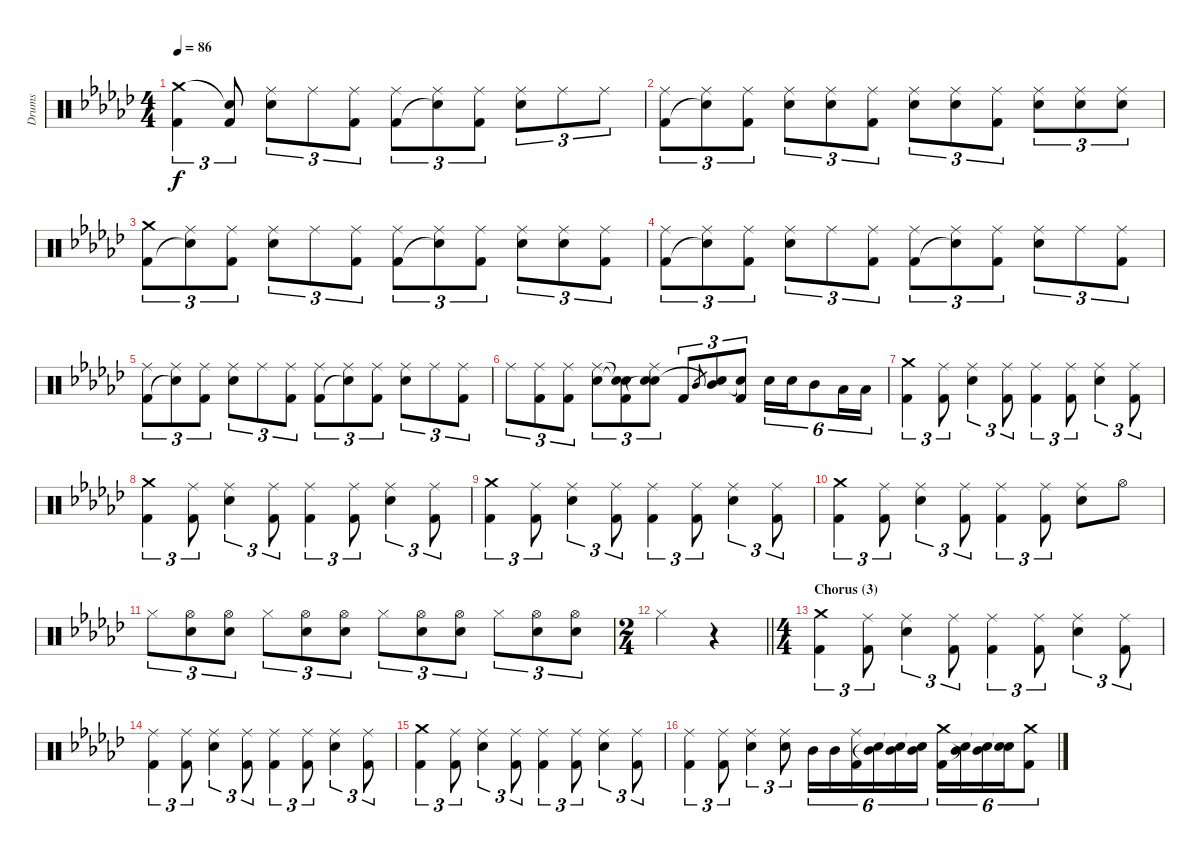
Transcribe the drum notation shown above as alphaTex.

\track ("Drums" "Drums") {instrument percussion}
\staff {score}
\articulation defaults
\ts (4 4)
\tempo 86
\clef neutral
\ks ebminor
("Crash medium (hit)" "Kick (hit) 2").4{tu (3 2) dy f} ("Snare (hit)"{t} "Kick (hit) 2").8{tu (3 2)} ("Ride (middle)" "Electric Snare (hit)").8{tu (3 2)} "Ride (middle)".8{tu (3 2)} ("Ride (middle)" "Kick (hit) 2").8{tu (3 2)} ("Ride (middle)" "Kick (hit) 2").8{tu (3 2)} ("Ride (middle)" "Snare (hit)"{t}).8{tu (3 2)} ("Ride (middle)" "Kick (hit) 2").8{tu (3 2)} ("Ride (middle)" "Electric Snare (hit)").8{tu (3 2)} "Ride (middle)".8{tu (3 2)} "Ride (middle)".8{tu (3 2)} |
("Ride (middle)" "Kick (hit) 2").8{tu (3 2)} ("Ride (middle)" "Snare (hit)"{t}).8{tu (3 2)} ("Ride (middle)" "Kick (hit) 2").8{tu (3 2)} ("Ride (middle)" "Electric Snare (hit)").8{tu (3 2)} ("Ride (middle)" "Electric Snare (hit)").8{tu (3 2)} ("Ride (middle)" "Kick (hit) 2").8{tu (3 2)} ("Ride (middle)" "Electric Snare (hit)").8{tu (3 2)} ("Ride (middle)" "Electric Snare (hit)").8{tu (3 2)} ("Ride (middle)" "Kick (hit) 2").8{tu (3 2)} ("Ride (middle)" "Electric Snare (hit)").8{tu (3 2)} ("Ride (middle)" "Electric Snare (hit)").8{tu (3 2)} ("Ride (middle)" "Electric Snare (hit)").8{tu (3 2)} |
("Crash medium (hit)" "Kick (hit) 2").8{tu (3 2)} ("Ride (middle)" "Snare (hit)"{t}).8{tu (3 2)} ("Ride (middle)" "Kick (hit) 2").8{tu (3 2)} ("Ride (middle)" "Electric Snare (hit)").8{tu (3 2)} "Ride (middle)".8{tu (3 2)} ("Ride (middle)" "Kick (hit) 2").8{tu (3 2)} ("Ride (middle)" "Kick (hit) 2").8{tu (3 2)} ("Ride (middle)" "Snare (hit)"{t}).8{tu (3 2)} ("Ride (middle)" "Kick (hit) 2").8{tu (3 2)} ("Ride (middle)" "Electric Snare (hit)").8{tu (3 2)} ("Ride (middle)" "Electric Snare (hit)").8{tu (3 2)} ("Ride (middle)" "Kick (hit) 2").8{tu (3 2)} |
("Ride (middle)" "Kick (hit) 2").8{tu (3 2)} ("Ride (middle)" "Snare (hit)"{t}).8{tu (3 2)} ("Ride (middle)" "Kick (hit) 2").8{tu (3 2)} ("Ride (middle)" "Electric Snare (hit)").8{tu (3 2)} "Ride (middle)".8{tu (3 2)} ("Ride (middle)" "Kick (hit) 2").8{tu (3 2)} ("Ride (middle)" "Kick (hit) 2").8{tu (3 2)} ("Ride (middle)" "Snare (hit)"{t}).8{tu (3 2)} ("Ride (middle)" "Kick (hit) 2").8{tu (3 2)} ("Ride (middle)" "Electric Snare (hit)").8{tu (3 2)} "Ride (middle)".8{tu (3 2)} ("Ride (middle)" "Kick (hit) 2").8{tu (3 2)} |
("Ride (middle)" "Kick (hit) 2").8{tu (3 2)} ("Ride (middle)" "Snare (hit)"{t}).8{tu (3 2)} ("Ride (middle)" "Kick (hit) 2").8{tu (3 2)} ("Ride (middle)" "Electric Snare (hit)").8{tu (3 2)} "Ride (middle)".8{tu (3 2)} ("Ride (middle)" "Kick (hit) 2").8{tu (3 2)} ("Ride (middle)" "Kick (hit) 2").8{tu (3 2)} ("Ride (middle)" "Snare (hit)"{t}).8{tu (3 2)} ("Ride (middle)" "Kick (hit) 2").8{tu (3 2)} ("Ride (middle)" "Electric Snare (hit)").8{tu (3 2)} "Ride (middle)".8{tu (3 2)} ("Ride (middle)" "Kick (hit) 2").8{tu (3 2)} |
"Ride (middle)".8{tu (3 2)} ("Ride (middle)" "Kick (hit) 2").8{tu (3 2)} ("Ride (middle)" "Kick (hit) 2").8{tu (3 2)} ("Ride (middle)" "Electric Snare (hit)").8{tu (3 2)} ("Snare (hit)"{t} "Snare (hit)"{t} "Kick (hit) 2").8{tu (3 2)} ("Ride (middle)" "Electric Snare (hit)" "Snare (hit)"{t}).8{tu (3 2)} "Kick (hit) 2".8{tu (3 2)} "Mid Tom (hit)".8{gr} ("Mid Tom (hit)" "Snare (hit)"{t}).8{tu (3 2)} ("Snare (hit)"{t} "Kick (hit) 2").8{tu (3 2)} "Electric Snare (hit)".16{tu (6 4)} "Electric Snare (hit)".16{tu (6 4)} "Mid Tom (hit)".8{tu (6 4)} "Low Floor Tom (hit)".16{tu (6 4)} "Low Floor Tom (hit)".16{tu (6 4)} |
("Crash medium (hit)" "Kick (hit) 2").4{tu (3 2)} ("Ride (middle)" "Kick (hit) 2").8{tu (3 2)} ("Ride (middle)" "Electric Snare (hit)").4{tu (3 2)} ("Ride (middle)" "Kick (hit) 2").8{tu (3 2)} ("Ride (middle)" "Kick (hit) 2").4{tu (3 2)} ("Ride (middle)" "Kick (hit) 2").8{tu (3 2)} ("Ride (middle)" "Electric Snare (hit)").4{tu (3 2)} ("Ride (middle)" "Kick (hit) 2").8{tu (3 2)} |
("Crash medium (hit)" "Kick (hit) 2").4{tu (3 2)} ("Ride (middle)" "Kick (hit) 2").8{tu (3 2)} ("Ride (middle)" "Electric Snare (hit)").4{tu (3 2)} ("Ride (middle)" "Kick (hit) 2").8{tu (3 2)} ("Ride (middle)" "Kick (hit) 2").4{tu (3 2)} ("Ride (middle)" "Kick (hit) 2").8{tu (3 2)} ("Ride (middle)" "Electric Snare (hit)").4{tu (3 2)} ("Ride (middle)" "Kick (hit) 2").8{tu (3 2)} |
("Crash medium (hit)" "Kick (hit) 2").4{tu (3 2)} ("Ride (middle)" "Kick (hit) 2").8{tu (3 2)} ("Ride (middle)" "Electric Snare (hit)").4{tu (3 2)} ("Ride (middle)" "Kick (hit) 2").8{tu (3 2)} ("Ride (middle)" "Kick (hit) 2").4{tu (3 2)} ("Ride (middle)" "Kick (hit) 2").8{tu (3 2)} ("Ride (middle)" "Electric Snare (hit)").4{tu (3 2)} ("Ride (middle)" "Kick (hit) 2").8{tu (3 2)} |
("Crash medium (hit)" "Kick (hit) 2").4{tu (3 2)} ("Ride (middle)" "Kick (hit) 2").8{tu (3 2)} ("Ride (middle)" "Electric Snare (hit)").4{tu (3 2)} ("Ride (middle)" "Kick (hit) 2").8{tu (3 2)} ("Ride (middle)" "Kick (hit) 2").4{tu (3 2)} ("Ride (middle)" "Kick (hit) 2").8{tu (3 2)} ("Ride (middle)" "Electric Snare (hit)").8 "Hi-Hat (open)".8 |
"Hi-Hat (closed)".8{tu (3 2)} ("Hi-Hat (open)" "Electric Snare (hit)").8{tu (3 2)} ("Hi-Hat (open)" "Electric Snare (hit)").8{tu (3 2)} "Hi-Hat (closed)".8{tu (3 2)} ("Hi-Hat (open)" "Electric Snare (hit)").8{tu (3 2)} ("Hi-Hat (open)" "Electric Snare (hit)").8{tu (3 2)} "Hi-Hat (closed)".8{tu (3 2)} ("Hi-Hat (open)" "Electric Snare (hit)").8{tu (3 2)} ("Hi-Hat (open)" "Electric Snare (hit)").8{tu (3 2)} "Hi-Hat (closed)".8{tu (3 2)} ("Hi-Hat (open)" "Electric Snare (hit)").8{tu (3 2)} ("Hi-Hat (open)" "Electric Snare (hit)").8{tu (3 2)} |
\ts (2 4)
\barLineRight lightlight "Hi-Hat (closed)".4
r.4 |
\ts (4 4)
\section ("" "Chorus (3)")
("Crash medium (hit)" "Kick (hit) 2").4{tu (3 2)} ("Ride (middle)" "Kick (hit) 2").8{tu (3 2)} ("Ride (middle)" "Electric Snare (hit)").4{tu (3 2)} ("Ride (middle)" "Kick (hit) 2").8{tu (3 2)} ("Ride (middle)" "Kick (hit) 2").4{tu (3 2)} ("Ride (middle)" "Kick (hit) 2").8{tu (3 2)} ("Ride (middle)" "Electric Snare (hit)").4{tu (3 2)} ("Ride (middle)" "Kick (hit) 2").8{tu (3 2)} |
("Ride (middle)" "Kick (hit) 2").4{tu (3 2)} ("Ride (middle)" "Kick (hit) 2").8{tu (3 2)} ("Ride (middle)" "Electric Snare (hit)").4{tu (3 2)} ("Ride (middle)" "Kick (hit) 2").8{tu (3 2)} ("Ride (middle)" "Kick (hit) 2").4{tu (3 2)} ("Ride (middle)" "Kick (hit) 2").8{tu (3 2)} ("Ride (middle)" "Electric Snare (hit)").4{tu (3 2)} ("Ride (middle)" "Kick (hit) 2").8{tu (3 2)} |
("Crash medium (hit)" "Kick (hit) 2").4{tu (3 2)} ("Ride (middle)" "Kick (hit) 2").8{tu (3 2)} ("Ride (middle)" "Electric Snare (hit)").4{tu (3 2)} ("Ride (middle)" "Kick (hit) 2").8{tu (3 2)} ("Ride (middle)" "Kick (hit) 2").4{tu (3 2)} ("Ride (middle)" "Kick (hit) 2").8{tu (3 2)} ("Ride (middle)" "Electric Snare (hit)").4{tu (3 2)} ("Ride (middle)" "Kick (hit) 2").8{tu (3 2)} |
("Ride (middle)" "Kick (hit) 2").4{tu (3 2)} ("Ride (middle)" "Kick (hit) 2").8{tu (3 2)} ("Ride (middle)" "Electric Snare (hit)").4{tu (3 2)} ("Ride (middle)" "Electric Snare (hit)").8{tu (3 2)} "Mid Tom (hit)".16{tu (6 4)} "Mid Tom (hit)".16{tu (6 4)} ("Ride (middle)" "Kick (hit) 2").16{tu (6 4)} ("Mid Tom (hit)" "Snare (hit)"{t}).16{tu (6 4)} ("Mid Tom (hit)" "Snare (hit)"{t}).16{tu (6 4)} ("Mid Tom (hit)" "Snare (hit)"{t}).16{tu (6 4)} ("Crash medium (hit)" "Kick (hit) 2").16{tu (6 4)} ("Mid Tom (hit)" "Snare (hit)"{t}).16{tu (6 4)} ("Mid Tom (hit)" "Snare (hit)"{t}).16{tu (6 4)} ("Electric Snare (hit)" "Snare (hit)"{t}).16{tu (6 4)} ("Crash medium (hit)" "Kick (hit) 2").8{tu (6 4)}
